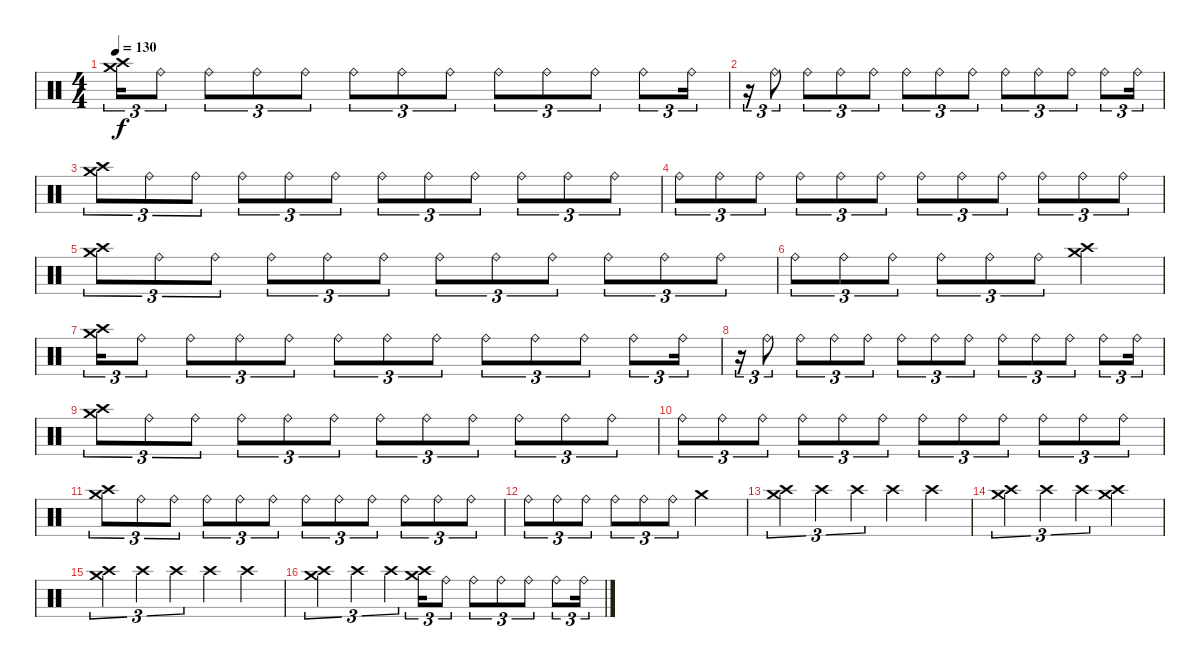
\track "" {instrument percussion}
\staff {score}
\articulation defaults
\ts (4 4)
\tempo 130
\clef neutral
\ks c
("Crash medium (hit)" "Crash high (hit)").16{tu (3 2) dy f} "Ride (bell)".8{tu (3 2)} "Ride (bell)".8{tu (3 2)} "Ride (bell)".8{tu (3 2)} "Ride (bell)".8{tu (3 2)} "Ride (bell)".8{tu (3 2)} "Ride (bell)".8{tu (3 2)} "Ride (bell)".8{tu (3 2)} "Ride (bell)".8{tu (3 2)} "Ride (bell)".8{tu (3 2)} "Ride (bell)".8{tu (3 2)} "Ride (bell)".8{tu (3 2)} "Ride (bell)".16{tu (3 2)} |
r.16{tu (3 2)} "Ride (bell)".8{tu (3 2)} "Ride (bell)".8{tu (3 2)} "Ride (bell)".8{tu (3 2)} "Ride (bell)".8{tu (3 2)} "Ride (bell)".8{tu (3 2)} "Ride (bell)".8{tu (3 2)} "Ride (bell)".8{tu (3 2)} "Ride (bell)".8{tu (3 2)} "Ride (bell)".8{tu (3 2)} "Ride (bell)".8{tu (3 2)} "Ride (bell)".8{tu (3 2)} "Ride (bell)".16{tu (3 2)} |
("Crash medium (hit)" "Crash high (hit)").8{tu (3 2)} "Ride (bell)".8{tu (3 2)} "Ride (bell)".8{tu (3 2)} "Ride (bell)".8{tu (3 2)} "Ride (bell)".8{tu (3 2)} "Ride (bell)".8{tu (3 2)} "Ride (bell)".8{tu (3 2)} "Ride (bell)".8{tu (3 2)} "Ride (bell)".8{tu (3 2)} "Ride (bell)".8{tu (3 2)} "Ride (bell)".8{tu (3 2)} "Ride (bell)".8{tu (3 2)} |
"Ride (bell)".8{tu (3 2)} "Ride (bell)".8{tu (3 2)} "Ride (bell)".8{tu (3 2)} "Ride (bell)".8{tu (3 2)} "Ride (bell)".8{tu (3 2)} "Ride (bell)".8{tu (3 2)} "Ride (bell)".8{tu (3 2)} "Ride (bell)".8{tu (3 2)} "Ride (bell)".8{tu (3 2)} "Ride (bell)".8{tu (3 2)} "Ride (bell)".8{tu (3 2)} "Ride (bell)".8{tu (3 2)} |
("Crash medium (hit)" "Crash high (hit)").8{tu (3 2)} "Ride (bell)".8{tu (3 2)} "Ride (bell)".8{tu (3 2)} "Ride (bell)".8{tu (3 2)} "Ride (bell)".8{tu (3 2)} "Ride (bell)".8{tu (3 2)} "Ride (bell)".8{tu (3 2)} "Ride (bell)".8{tu (3 2)} "Ride (bell)".8{tu (3 2)} "Ride (bell)".8{tu (3 2)} "Ride (bell)".8{tu (3 2)} "Ride (bell)".8{tu (3 2)} |
"Ride (bell)".8{tu (3 2)} "Ride (bell)".8{tu (3 2)} "Ride (bell)".8{tu (3 2)} "Ride (bell)".8{tu (3 2)} "Ride (bell)".8{tu (3 2)} "Ride (bell)".8{tu (3 2)} ("Crash high (hit)" "Crash medium (hit)").2 |
("Crash medium (hit)" "Crash high (hit)").16{tu (3 2)} "Ride (bell)".8{tu (3 2)} "Ride (bell)".8{tu (3 2)} "Ride (bell)".8{tu (3 2)} "Ride (bell)".8{tu (3 2)} "Ride (bell)".8{tu (3 2)} "Ride (bell)".8{tu (3 2)} "Ride (bell)".8{tu (3 2)} "Ride (bell)".8{tu (3 2)} "Ride (bell)".8{tu (3 2)} "Ride (bell)".8{tu (3 2)} "Ride (bell)".8{tu (3 2)} "Ride (bell)".16{tu (3 2)} |
r.16{tu (3 2)} "Ride (bell)".8{tu (3 2)} "Ride (bell)".8{tu (3 2)} "Ride (bell)".8{tu (3 2)} "Ride (bell)".8{tu (3 2)} "Ride (bell)".8{tu (3 2)} "Ride (bell)".8{tu (3 2)} "Ride (bell)".8{tu (3 2)} "Ride (bell)".8{tu (3 2)} "Ride (bell)".8{tu (3 2)} "Ride (bell)".8{tu (3 2)} "Ride (bell)".8{tu (3 2)} "Ride (bell)".16{tu (3 2)} |
("Crash medium (hit)" "Crash high (hit)").8{tu (3 2)} "Ride (bell)".8{tu (3 2)} "Ride (bell)".8{tu (3 2)} "Ride (bell)".8{tu (3 2)} "Ride (bell)".8{tu (3 2)} "Ride (bell)".8{tu (3 2)} "Ride (bell)".8{tu (3 2)} "Ride (bell)".8{tu (3 2)} "Ride (bell)".8{tu (3 2)} "Ride (bell)".8{tu (3 2)} "Ride (bell)".8{tu (3 2)} "Ride (bell)".8{tu (3 2)} |
"Ride (bell)".8{tu (3 2)} "Ride (bell)".8{tu (3 2)} "Ride (bell)".8{tu (3 2)} "Ride (bell)".8{tu (3 2)} "Ride (bell)".8{tu (3 2)} "Ride (bell)".8{tu (3 2)} "Ride (bell)".8{tu (3 2)} "Ride (bell)".8{tu (3 2)} "Ride (bell)".8{tu (3 2)} "Ride (bell)".8{tu (3 2)} "Ride (bell)".8{tu (3 2)} "Ride (bell)".8{tu (3 2)} |
("Crash medium (hit)" "Crash high (hit)").8{tu (3 2)} "Ride (bell)".8{tu (3 2)} "Ride (bell)".8{tu (3 2)} "Ride (bell)".8{tu (3 2)} "Ride (bell)".8{tu (3 2)} "Ride (bell)".8{tu (3 2)} "Ride (bell)".8{tu (3 2)} "Ride (bell)".8{tu (3 2)} "Ride (bell)".8{tu (3 2)} "Ride (bell)".8{tu (3 2)} "Ride (bell)".8{tu (3 2)} "Ride (bell)".8{tu (3 2)} |
"Ride (bell)".8{tu (3 2)} "Ride (bell)".8{tu (3 2)} "Ride (bell)".8{tu (3 2)} "Ride (bell)".8{tu (3 2)} "Ride (bell)".8{tu (3 2)} "Ride (bell)".8{tu (3 2)} "Crash medium (hit)".2 |
("Crash medium (hit)" "Crash high (hit)").4{tu (3 2)} "Crash high (hit)".4{tu (3 2)} "Crash high (hit)".4{tu (3 2)} "Crash high (hit)".4 "Crash high (hit)".4 |
("Crash medium (hit)" "Crash high (hit)").4{tu (3 2)} "Crash high (hit)".4{tu (3 2)} "Crash high (hit)".4{tu (3 2)} ("Crash medium (hit)" "Crash high (hit)").2 |
("Crash medium (hit)" "Crash high (hit)").4{tu (3 2)} "Crash high (hit)".4{tu (3 2)} "Crash high (hit)".4{tu (3 2)} "Crash high (hit)".4 "Crash high (hit)".4 |
("Crash medium (hit)" "Crash high (hit)").4{tu (3 2)} "Crash high (hit)".4{tu (3 2)} "Crash high (hit)".4{tu (3 2)} ("Crash medium (hit)" "Crash high (hit)").16{tu (3 2)} "Ride (bell)".8{tu (3 2)} "Ride (bell)".8{tu (3 2)} "Ride (bell)".8{tu (3 2)} "Ride (bell)".8{tu (3 2)} "Ride (bell)".8{tu (3 2)} "Ride (bell)".16{tu (3 2)}
